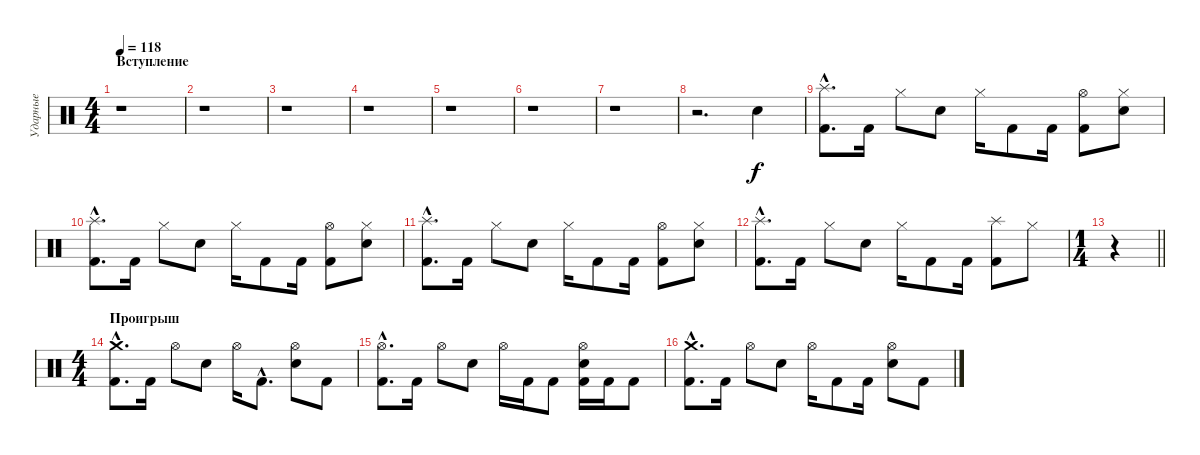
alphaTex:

\track ("Ударные" "Ударные") {instrument percussion}
\staff {score}
\articulation defaults
\ts (4 4)
\section ("" "Вступление")
\tempo 118
\clef neutral
\ks c
r.1{dy f} |
r.1 |
r.1 |
r.1 |
r.1 |
r.1 |
r.1 |
r.2{d} "Electric Snare (hit)".4 |
("Splash (hit)"{hac} "Kick (hit) 2"{hac}).8{d} "Kick (hit) 2".16 "Hi-Hat (closed)".8 "Electric Snare (hit)".8 "Hi-Hat (closed)".16 "Kick (hit) 2".8 "Kick (hit) 2".16 ("Hi-Hat (open)" "Kick (hit) 2").8 ("Hi-Hat (closed)" "Electric Snare (hit)").8 |
("Splash (hit)"{hac} "Kick (hit) 2"{hac}).8{d} "Kick (hit) 2".16 "Hi-Hat (closed)".8 "Electric Snare (hit)".8 "Hi-Hat (closed)".16 "Kick (hit) 2".8 "Kick (hit) 2".16 ("Hi-Hat (open)" "Kick (hit) 2").8 ("Hi-Hat (closed)" "Electric Snare (hit)").8 |
("Splash (hit)"{hac} "Kick (hit) 2"{hac}).8{d} "Kick (hit) 2".16 "Hi-Hat (closed)".8 "Electric Snare (hit)".8 "Hi-Hat (closed)".16 "Kick (hit) 2".8 "Kick (hit) 2".16 ("Hi-Hat (open)" "Kick (hit) 2").8 ("Hi-Hat (closed)" "Electric Snare (hit)").8 |
("Splash (hit)"{hac} "Kick (hit) 2"{hac}).8{d} "Kick (hit) 2".16 "Hi-Hat (closed)".8 "Electric Snare (hit)".8 "Hi-Hat (closed)".16 "Kick (hit) 2".8 "Kick (hit) 2".16 ("Splash (hit)" "Kick (hit) 2").8 "Hi-Hat (closed)".8 |
\ts (1 4)
\barLineRight lightlight
r.4 |
\ts (4 4)
\section ("" "Проигрыш")
("Crash medium (hit)"{hac} "Kick (hit) 2"{hac}).8{d} "Kick (hit) 2".16 "Hi-Hat (open)".8 "Electric Snare (hit)".8 "Hi-Hat (open)".16 "Kick (hit) 2"{hac}.8{d} ("Hi-Hat (open)" "Electric Snare (hit)").8 "Kick (hit) 2".8 |
("Hi-Hat (open)"{hac} "Kick (hit) 2"{hac}).8{d} "Kick (hit) 2".16 "Hi-Hat (open)".8 "Electric Snare (hit)".8 "Hi-Hat (open)".16 "Kick (hit) 2".16 "Kick (hit) 2".8 ("Hi-Hat (open)" "Electric Snare (hit)" "Kick (hit) 2").16 "Kick (hit) 2".16 "Kick (hit) 2".8 |
("Crash medium (hit)"{hac} "Kick (hit) 2"{hac}).8{d} "Kick (hit) 2".16 "Hi-Hat (open)".8 "Electric Snare (hit)".8 "Hi-Hat (open)".16 "Kick (hit) 2".8 "Kick (hit) 2".16 ("Hi-Hat (open)" "Electric Snare (hit)").8 "Kick (hit) 2".8
